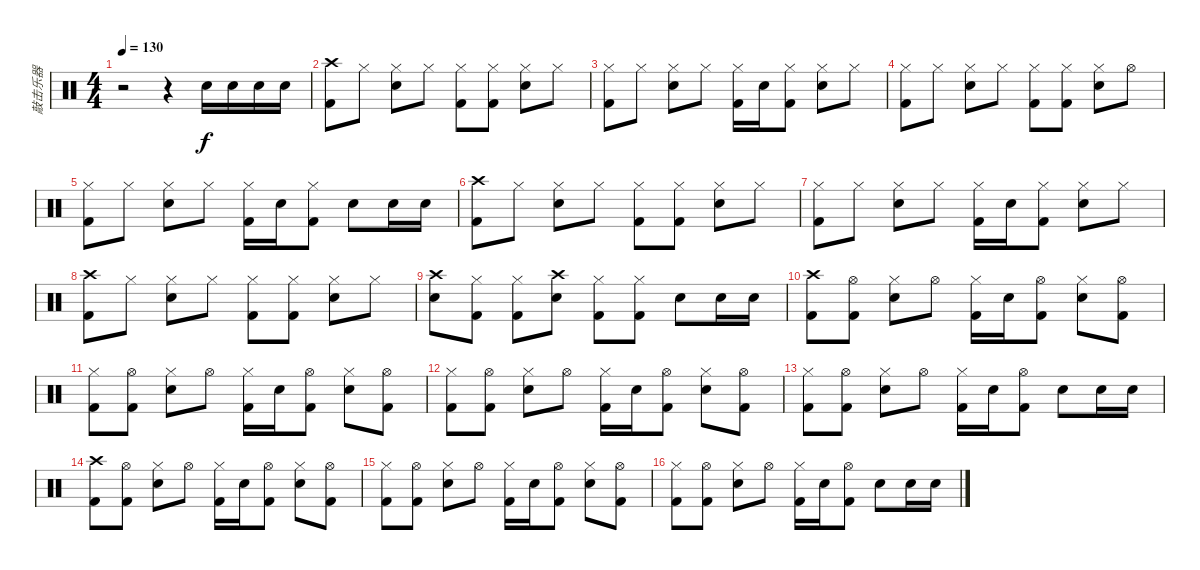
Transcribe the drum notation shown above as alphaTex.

\track ("敲击乐器" "敲击乐器") {instrument percussion}
\staff {score}
\articulation defaults
\ts (4 4)
\tempo 130
\clef neutral
\ks c
r.2{dy f} r.4 "Electric Snare (hit)".16 "Electric Snare (hit)".16 "Electric Snare (hit)".16 "Electric Snare (hit)".16 |
("Crash high (hit)" "Kick (hit) 2").8 "Hi-Hat (closed)".8 ("Hi-Hat (closed)" "Electric Snare (hit)").8 "Hi-Hat (closed)".8 ("Hi-Hat (closed)" "Kick (hit) 2").8 ("Hi-Hat (closed)" "Kick (hit) 2").8 ("Hi-Hat (closed)" "Electric Snare (hit)").8 "Hi-Hat (closed)".8 |
("Hi-Hat (closed)" "Kick (hit) 2").8 "Hi-Hat (closed)".8 ("Hi-Hat (closed)" "Electric Snare (hit)").8 "Hi-Hat (closed)".8 ("Hi-Hat (closed)" "Kick (hit) 2").16 "Electric Snare (hit)".16 ("Hi-Hat (closed)" "Kick (hit) 2").8 ("Hi-Hat (closed)" "Electric Snare (hit)").8 "Hi-Hat (closed)".8 |
("Hi-Hat (closed)" "Kick (hit) 2").8 "Hi-Hat (closed)".8 ("Hi-Hat (closed)" "Electric Snare (hit)").8 "Hi-Hat (closed)".8 ("Hi-Hat (closed)" "Kick (hit) 2").8 ("Hi-Hat (closed)" "Kick (hit) 2").8 ("Hi-Hat (closed)" "Electric Snare (hit)").8 "Hi-Hat (open)".8 |
("Hi-Hat (closed)" "Kick (hit) 2").8 "Hi-Hat (closed)".8 ("Hi-Hat (closed)" "Electric Snare (hit)").8 "Hi-Hat (closed)".8 ("Hi-Hat (closed)" "Kick (hit) 2").16 "Electric Snare (hit)".16 ("Hi-Hat (closed)" "Kick (hit) 2").8 "Electric Snare (hit)".8 "Electric Snare (hit)".16 "Electric Snare (hit)".16 |
("Crash high (hit)" "Kick (hit) 2").8 "Hi-Hat (closed)".8 ("Hi-Hat (closed)" "Electric Snare (hit)").8 "Hi-Hat (closed)".8 ("Hi-Hat (closed)" "Kick (hit) 2").8 ("Hi-Hat (closed)" "Kick (hit) 2").8 ("Hi-Hat (closed)" "Electric Snare (hit)").8 "Hi-Hat (closed)".8 |
("Hi-Hat (closed)" "Kick (hit) 2").8 "Hi-Hat (closed)".8 ("Hi-Hat (closed)" "Electric Snare (hit)").8 "Hi-Hat (closed)".8 ("Hi-Hat (closed)" "Kick (hit) 2").16 "Electric Snare (hit)".16 ("Hi-Hat (closed)" "Kick (hit) 2").8 ("Hi-Hat (closed)" "Electric Snare (hit)").8 "Hi-Hat (closed)".8 |
("Crash high (hit)" "Kick (hit) 2").8 "Hi-Hat (closed)".8 ("Hi-Hat (closed)" "Electric Snare (hit)").8 "Hi-Hat (closed)".8 ("Hi-Hat (closed)" "Kick (hit) 2").8 ("Hi-Hat (closed)" "Kick (hit) 2").8 ("Hi-Hat (closed)" "Electric Snare (hit)").8 "Hi-Hat (closed)".8 |
("Crash high (hit)" "Electric Snare (hit)").8 ("Hi-Hat (closed)" "Kick (hit) 2").8 ("Hi-Hat (closed)" "Kick (hit) 2").8 ("Crash high (hit)" "Electric Snare (hit)").8 ("Hi-Hat (closed)" "Kick (hit) 2").8 ("Hi-Hat (closed)" "Kick (hit) 2").8 "Electric Snare (hit)".8 "Electric Snare (hit)".16 "Electric Snare (hit)".16 |
("Crash high (hit)" "Kick (hit) 2").8 ("Hi-Hat (open)" "Kick (hit) 2").8 ("Hi-Hat (closed)" "Electric Snare (hit)").8 "Hi-Hat (open)".8 ("Hi-Hat (closed)" "Kick (hit) 2").16 "Electric Snare (hit)".16 ("Hi-Hat (open)" "Kick (hit) 2").8 ("Hi-Hat (closed)" "Electric Snare (hit)").8 ("Hi-Hat (open)" "Kick (hit) 2").8 |
("Hi-Hat (closed)" "Kick (hit) 2").8 ("Hi-Hat (open)" "Kick (hit) 2").8 ("Hi-Hat (closed)" "Electric Snare (hit)").8 "Hi-Hat (open)".8 ("Hi-Hat (closed)" "Kick (hit) 2").16 "Electric Snare (hit)".16 ("Hi-Hat (open)" "Kick (hit) 2").8 ("Hi-Hat (closed)" "Electric Snare (hit)").8 ("Hi-Hat (open)" "Kick (hit) 2").8 |
("Hi-Hat (closed)" "Kick (hit) 2").8 ("Hi-Hat (open)" "Kick (hit) 2").8 ("Hi-Hat (closed)" "Electric Snare (hit)").8 "Hi-Hat (open)".8 ("Hi-Hat (closed)" "Kick (hit) 2").16 "Electric Snare (hit)".16 ("Hi-Hat (open)" "Kick (hit) 2").8 ("Hi-Hat (closed)" "Electric Snare (hit)").8 ("Hi-Hat (open)" "Kick (hit) 2").8 |
("Hi-Hat (closed)" "Kick (hit) 2").8 ("Hi-Hat (open)" "Kick (hit) 2").8 ("Hi-Hat (closed)" "Electric Snare (hit)").8 "Hi-Hat (open)".8 ("Hi-Hat (closed)" "Kick (hit) 2").16 "Electric Snare (hit)".16 ("Hi-Hat (open)" "Kick (hit) 2").8 "Electric Snare (hit)".8 "Electric Snare (hit)".16 "Electric Snare (hit)".16 |
("Crash high (hit)" "Kick (hit) 2").8 ("Hi-Hat (open)" "Kick (hit) 2").8 ("Hi-Hat (closed)" "Electric Snare (hit)").8 "Hi-Hat (open)".8 ("Hi-Hat (closed)" "Kick (hit) 2").16 "Electric Snare (hit)".16 ("Hi-Hat (open)" "Kick (hit) 2").8 ("Hi-Hat (closed)" "Electric Snare (hit)").8 ("Hi-Hat (open)" "Kick (hit) 2").8 |
("Hi-Hat (closed)" "Kick (hit) 2").8 ("Hi-Hat (open)" "Kick (hit) 2").8 ("Hi-Hat (closed)" "Electric Snare (hit)").8 "Hi-Hat (open)".8 ("Hi-Hat (closed)" "Kick (hit) 2").16 "Electric Snare (hit)".16 ("Hi-Hat (open)" "Kick (hit) 2").8 ("Hi-Hat (closed)" "Electric Snare (hit)").8 ("Hi-Hat (open)" "Kick (hit) 2").8 |
("Hi-Hat (closed)" "Kick (hit) 2").8 ("Hi-Hat (open)" "Kick (hit) 2").8 ("Hi-Hat (closed)" "Electric Snare (hit)").8 "Hi-Hat (open)".8 ("Hi-Hat (closed)" "Kick (hit) 2").16 "Electric Snare (hit)".16 ("Hi-Hat (open)" "Kick (hit) 2").8 "Electric Snare (hit)".8 "Electric Snare (hit)".16 "Electric Snare (hit)".16
